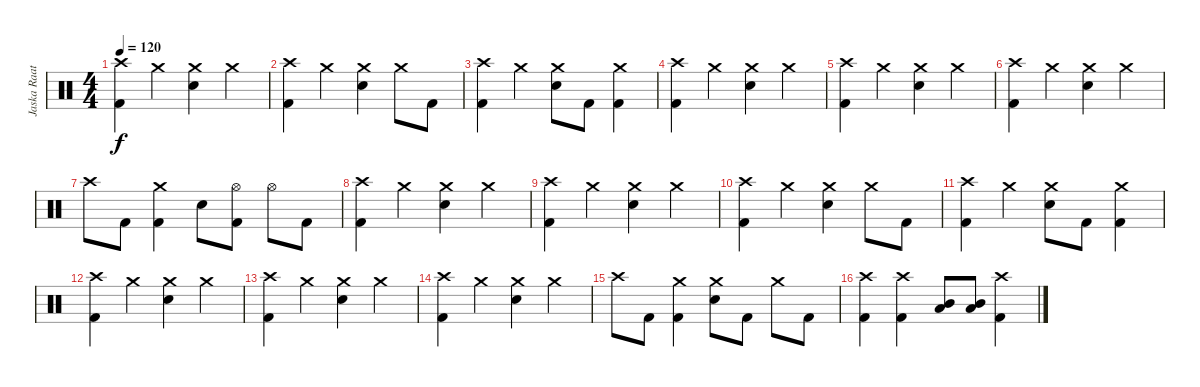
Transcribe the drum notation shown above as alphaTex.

\track ("Jaska Raatikainen" "Jaska Raat") {instrument percussion}
\staff {score}
\articulation defaults
\ts (4 4)
\tempo 120
\clef neutral
\ks c
("Crash high (hit)" "Kick (hit) 2").4{dy f} "Crash medium (hit)".4 ("Crash medium (hit)" "Snare (hit) 2").4 "Crash medium (hit)".4 |
("Crash high (hit)" "Kick (hit) 2").4 "Crash medium (hit)".4 ("Crash medium (hit)" "Snare (hit) 2").4 "Crash medium (hit)".8 "Kick (hit) 2".8 |
("Crash high (hit)" "Kick (hit) 2").4 "Crash medium (hit)".4 ("Crash medium (hit)" "Snare (hit) 2").8 "Kick (hit) 2".8 ("Crash medium (hit)" "Kick (hit) 2").4 |
("Crash high (hit)" "Kick (hit) 2").4 "Crash medium (hit)".4 ("Crash medium (hit)" "Snare (hit) 2").4 "Crash medium (hit)".4 |
("Crash high (hit)" "Kick (hit) 2").4 "Crash medium (hit)".4 ("Crash medium (hit)" "Snare (hit) 2").4 "Crash medium (hit)".4 |
("Crash high (hit)" "Kick (hit) 2").4 "Crash medium (hit)".4 ("Crash medium (hit)" "Snare (hit) 2").4 "Crash medium (hit)".4 |
"Crash high (hit)".8 "Kick (hit) 2".8 ("Crash medium (hit)" "Kick (hit) 2").4 "Snare (hit) 2".8 ("Hi-Hat (open)" "Kick (hit) 2").8 "Hi-Hat (open)".8 "Kick (hit) 2".8 |
("Crash high (hit)" "Kick (hit) 2").4 "Crash medium (hit)".4 ("Crash medium (hit)" "Snare (hit) 2").4 "Crash medium (hit)".4 |
("Crash high (hit)" "Kick (hit) 2").4 "Crash medium (hit)".4 ("Crash medium (hit)" "Snare (hit) 2").4 "Crash medium (hit)".4 |
("Crash high (hit)" "Kick (hit) 2").4 "Crash medium (hit)".4 ("Crash medium (hit)" "Snare (hit) 2").4 "Crash medium (hit)".8 "Kick (hit) 2".8 |
("Crash high (hit)" "Kick (hit) 2").4 "Crash medium (hit)".4 ("Crash medium (hit)" "Snare (hit) 2").8 "Kick (hit) 2".8 ("Crash medium (hit)" "Kick (hit) 2").4 |
("Crash high (hit)" "Kick (hit) 2").4 "Crash medium (hit)".4 ("Crash medium (hit)" "Snare (hit) 2").4 "Crash medium (hit)".4 |
("Crash high (hit)" "Kick (hit) 2").4 "Crash medium (hit)".4 ("Crash medium (hit)" "Snare (hit) 2").4 "Crash medium (hit)".4 |
("Crash high (hit)" "Kick (hit) 2").4 "Crash medium (hit)".4 ("Crash medium (hit)" "Snare (hit) 2").4 "Crash medium (hit)".4 |
"Crash high (hit)".8 "Kick (hit) 2".8 ("Crash medium (hit)" "Kick (hit) 2").4 ("Crash medium (hit)" "Snare (hit) 2").8 "Kick (hit) 2".8 "Crash medium (hit)".8 "Kick (hit) 2".8 |
("Crash high (hit)" "Kick (hit) 2").4 ("Crash high (hit)" "Kick (hit) 2").4 ("Mid Tom (hit)" "Low Tom (hit)").8 ("Mid Tom (hit)" "Low Tom (hit)").8 ("Crash high (hit)" "Kick (hit) 2").4
